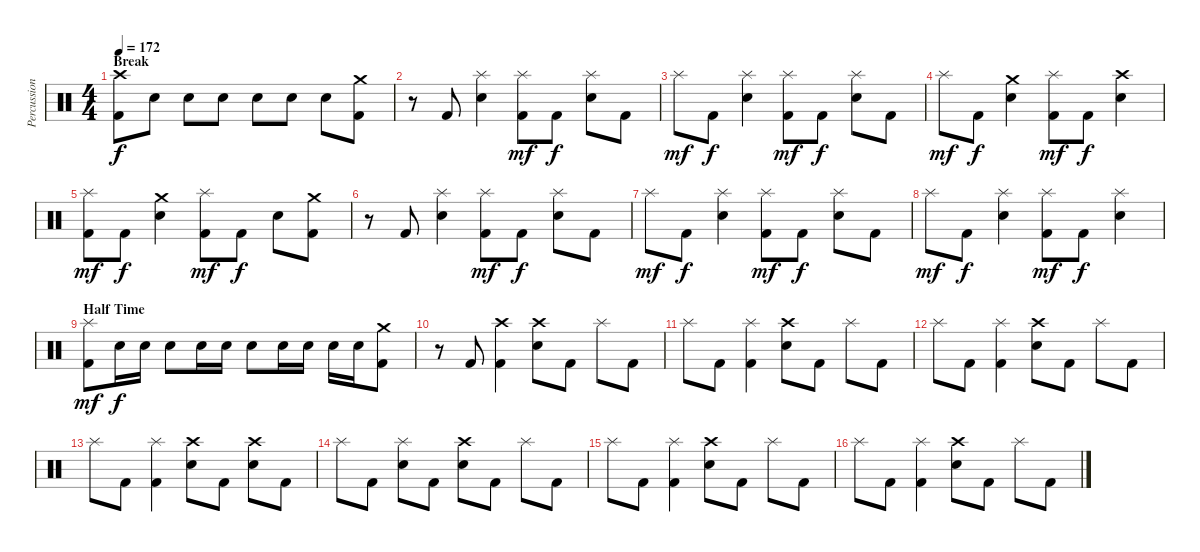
\track ("Percussion" "Percussion") {instrument percussion}
\staff {score}
\articulation defaults
\ts (4 4)
\section ("" "Break")
\tempo 172
\clef neutral
\ks c
("Crash high (hit)" "Kick (hit) 2").8{dy f} "Electric Snare (hit)".8 "Electric Snare (hit)".8 "Electric Snare (hit)".8 "Electric Snare (hit)".8 "Electric Snare (hit)".8 "Electric Snare (hit)".8 ("Crash medium (hit)" "Kick (hit) 2").8 |
r.8 "Kick (hit) 2".8 ("Splash (hit)" "Electric Snare (hit)").4 ("Splash (hit)" "Kick (hit) 2").8{dy mf} "Kick (hit) 2".8{dy f} ("Splash (hit)" "Electric Snare (hit)").8 "Kick (hit) 2".8 |
"Splash (hit)".8{dy mf} "Kick (hit) 2".8{dy f} ("Splash (hit)" "Electric Snare (hit)").4 ("Splash (hit)" "Kick (hit) 2").8{dy mf} "Kick (hit) 2".8{dy f} ("Splash (hit)" "Electric Snare (hit)").8 "Kick (hit) 2".8 |
"Splash (hit)".8{dy mf} "Kick (hit) 2".8{dy f} ("Crash medium (hit)" "Electric Snare (hit)").4 ("Splash (hit)" "Kick (hit) 2").8{dy mf} "Kick (hit) 2".8{dy f} ("Crash high (hit)" "Electric Snare (hit)").4 |
("Splash (hit)" "Kick (hit) 2").8{dy mf} "Kick (hit) 2".8{dy f} ("Crash medium (hit)" "Electric Snare (hit)").4 ("Splash (hit)" "Kick (hit) 2").8{dy mf} "Kick (hit) 2".8{dy f} "Electric Snare (hit)".8 ("Crash medium (hit)" "Kick (hit) 2").8 |
r.8 "Kick (hit) 2".8 ("Splash (hit)" "Electric Snare (hit)").4 ("Splash (hit)" "Kick (hit) 2").8{dy mf} "Kick (hit) 2".8{dy f} ("Splash (hit)" "Electric Snare (hit)").8 "Kick (hit) 2".8 |
"Splash (hit)".8{dy mf} "Kick (hit) 2".8{dy f} ("Splash (hit)" "Electric Snare (hit)").4 ("Splash (hit)" "Kick (hit) 2").8{dy mf} "Kick (hit) 2".8{dy f} ("Splash (hit)" "Electric Snare (hit)").8 "Kick (hit) 2".8 |
"Splash (hit)".8{dy mf} "Kick (hit) 2".8{dy f} ("Splash (hit)" "Electric Snare (hit)").4 ("Splash (hit)" "Kick (hit) 2").8{dy mf} "Kick (hit) 2".8{dy f} ("Splash (hit)" "Electric Snare (hit)").4 |
\section ("" "Half Time")
("Splash (hit)" "Kick (hit) 2").8{dy mf} "Electric Snare (hit)".16{dy f} "Electric Snare (hit)".16 "Electric Snare (hit)".8 "Electric Snare (hit)".16 "Electric Snare (hit)".16 "Electric Snare (hit)".8 "Electric Snare (hit)".16 "Electric Snare (hit)".16 "Electric Snare (hit)".16 "Electric Snare (hit)".16 ("Crash medium (hit)" "Kick (hit) 2").8 |
r.8 "Kick (hit) 2".8 ("Crash high (hit)" "Kick (hit) 2").4 ("Crash high (hit)" "Electric Snare (hit)").8 "Kick (hit) 2".8 "Splash (hit)".8 "Kick (hit) 2".8 |
"Splash (hit)".8 "Kick (hit) 2".8 ("Splash (hit)" "Kick (hit) 2").4 ("Crash high (hit)" "Electric Snare (hit)").8 "Kick (hit) 2".8 "Splash (hit)".8 "Kick (hit) 2".8 |
"Splash (hit)".8 "Kick (hit) 2".8 ("Splash (hit)" "Kick (hit) 2").4 ("Crash high (hit)" "Electric Snare (hit)").8 "Kick (hit) 2".8 "Splash (hit)".8 "Kick (hit) 2".8 |
"Splash (hit)".8 "Kick (hit) 2".8 ("Splash (hit)" "Kick (hit) 2").4 ("Crash high (hit)" "Electric Snare (hit)").8 "Kick (hit) 2".8 ("Crash high (hit)" "Electric Snare (hit)").8 "Kick (hit) 2".8 |
"Splash (hit)".8 "Kick (hit) 2".8 ("Splash (hit)" "Electric Snare (hit)").8 "Kick (hit) 2".8 ("Crash high (hit)" "Electric Snare (hit)").8 "Kick (hit) 2".8 "Splash (hit)".8 "Kick (hit) 2".8 |
"Splash (hit)".8 "Kick (hit) 2".8 ("Splash (hit)" "Kick (hit) 2").4 ("Crash high (hit)" "Electric Snare (hit)").8 "Kick (hit) 2".8 "Splash (hit)".8 "Kick (hit) 2".8 |
"Splash (hit)".8 "Kick (hit) 2".8 ("Splash (hit)" "Kick (hit) 2").4 ("Crash high (hit)" "Electric Snare (hit)").8 "Kick (hit) 2".8 "Splash (hit)".8 "Kick (hit) 2".8
